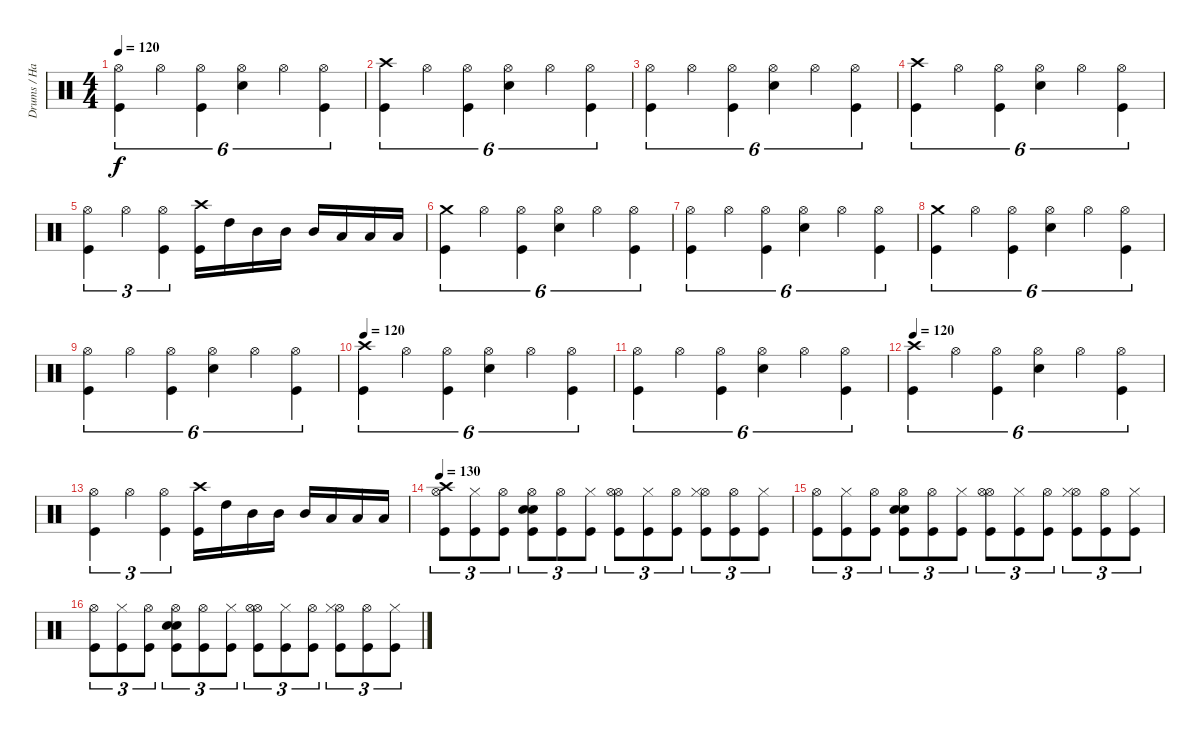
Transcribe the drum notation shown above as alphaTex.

\track ("Drums / Hammer of God" "Drums / Ha") {instrument percussion}
\staff {score}
\articulation defaults
\ts (4 4)
\tempo 120
\clef neutral
\ks c
("Kick (hit)" "Hi-Hat (open)").4{tu (6 4) dy f} "Hi-Hat (open)".4{tu (6 4)} ("Kick (hit)" "Hi-Hat (open)").4{tu (6 4)} ("Snare (hit) 2" "Hi-Hat (open)").4{tu (6 4)} "Hi-Hat (open)".4{tu (6 4)} ("Kick (hit)" "Hi-Hat (open)").4{tu (6 4)} |
("Kick (hit)" "Crash high (hit)").4{tu (6 4)} "Hi-Hat (open)".4{tu (6 4)} ("Kick (hit)" "Hi-Hat (open)").4{tu (6 4)} ("Snare (hit) 2" "Hi-Hat (open)").4{tu (6 4)} "Hi-Hat (open)".4{tu (6 4)} ("Kick (hit)" "Hi-Hat (open)").4{tu (6 4)} |
("Kick (hit)" "Hi-Hat (open)").4{tu (6 4)} "Hi-Hat (open)".4{tu (6 4)} ("Kick (hit)" "Hi-Hat (open)").4{tu (6 4)} ("Snare (hit) 2" "Hi-Hat (open)").4{tu (6 4)} "Hi-Hat (open)".4{tu (6 4)} ("Kick (hit)" "Hi-Hat (open)").4{tu (6 4)} |
("Kick (hit)" "Crash high (hit)").4{tu (6 4)} "Hi-Hat (open)".4{tu (6 4)} ("Kick (hit)" "Hi-Hat (open)").4{tu (6 4)} ("Snare (hit) 2" "Hi-Hat (open)").4{tu (6 4)} "Hi-Hat (open)".4{tu (6 4)} ("Kick (hit)" "Hi-Hat (open)").4{tu (6 4)} |
("Kick (hit)" "Hi-Hat (open)").4{tu (3 2)} "Hi-Hat (open)".4{tu (3 2)} ("Kick (hit)" "Hi-Hat (open)").4{tu (3 2)} ("Kick (hit)" "Crash high (hit)").16 "High Tom (hit)".16 "Mid Tom (hit)".16 "Mid Tom (hit)".16 "Mid Tom (hit)".16 "Low Tom (hit)".16 "Low Tom (hit)".16 "Low Tom (hit)".16 |
("Kick (hit)" "Crash medium (hit)").4{tu (6 4)} "Hi-Hat (open)".4{tu (6 4)} ("Kick (hit)" "Hi-Hat (open)").4{tu (6 4)} ("Snare (hit) 2" "Hi-Hat (open)").4{tu (6 4)} "Hi-Hat (open)".4{tu (6 4)} ("Kick (hit)" "Hi-Hat (open)").4{tu (6 4)} |
("Kick (hit)" "Hi-Hat (open)").4{tu (6 4)} "Hi-Hat (open)".4{tu (6 4)} ("Kick (hit)" "Hi-Hat (open)").4{tu (6 4)} ("Snare (hit) 2" "Hi-Hat (open)").4{tu (6 4)} "Hi-Hat (open)".4{tu (6 4)} ("Kick (hit)" "Hi-Hat (open)").4{tu (6 4)} |
("Kick (hit)" "Crash medium (hit)").4{tu (6 4)} "Hi-Hat (open)".4{tu (6 4)} ("Kick (hit)" "Hi-Hat (open)").4{tu (6 4)} ("Snare (hit) 2" "Hi-Hat (open)").4{tu (6 4)} "Hi-Hat (open)".4{tu (6 4)} ("Kick (hit)" "Hi-Hat (open)").4{tu (6 4)} |
("Kick (hit)" "Hi-Hat (open)").4{tu (6 4)} "Hi-Hat (open)".4{tu (6 4)} ("Kick (hit)" "Hi-Hat (open)").4{tu (6 4)} ("Snare (hit) 2" "Hi-Hat (open)").4{tu (6 4)} "Hi-Hat (open)".4{tu (6 4)} ("Kick (hit)" "Hi-Hat (open)").4{tu (6 4)} |
\tempo 120
("Kick (hit)" "Crash high (hit)").4{tu (6 4)} "Hi-Hat (open)".4{tu (6 4)} ("Kick (hit)" "Hi-Hat (open)").4{tu (6 4)} ("Snare (hit) 2" "Hi-Hat (open)").4{tu (6 4)} "Hi-Hat (open)".4{tu (6 4)} ("Kick (hit)" "Hi-Hat (open)").4{tu (6 4)} |
("Kick (hit)" "Hi-Hat (open)").4{tu (6 4)} "Hi-Hat (open)".4{tu (6 4)} ("Kick (hit)" "Hi-Hat (open)").4{tu (6 4)} ("Snare (hit) 2" "Hi-Hat (open)").4{tu (6 4)} "Hi-Hat (open)".4{tu (6 4)} ("Kick (hit)" "Hi-Hat (open)").4{tu (6 4)} |
\tempo 120
("Kick (hit)" "Crash high (hit)").4{tu (6 4)} "Hi-Hat (open)".4{tu (6 4)} ("Kick (hit)" "Hi-Hat (open)").4{tu (6 4)} ("Snare (hit) 2" "Hi-Hat (open)").4{tu (6 4)} "Hi-Hat (open)".4{tu (6 4)} ("Kick (hit)" "Hi-Hat (open)").4{tu (6 4)} |
("Kick (hit)" "Hi-Hat (open)").4{tu (3 2)} "Hi-Hat (open)".4{tu (3 2)} ("Kick (hit)" "Hi-Hat (open)").4{tu (3 2)} ("Kick (hit)" "Crash high (hit)").16 "High Tom (hit)".16 "Mid Tom (hit)".16 "Mid Tom (hit)".16 "Mid Tom (hit)".16 "Low Tom (hit)".16 "Low Tom (hit)".16 "Low Tom (hit)".16 |
\tempo 130
("Crash high (hit)" "Hi-Hat (open)" "Kick (hit)").8{tu (3 2)} ("Hi-Hat (closed)" "Kick (hit)").8{tu (3 2)} ("Hi-Hat (open)" "Kick (hit)").8{tu (3 2)} ("Snare (hit) 2" "Hi-Hat (open)" "Snare (hit) 2" "Kick (hit)").8{tu (3 2)} ("Hi-Hat (open)" "Kick (hit)").8{tu (3 2)} ("Hi-Hat (closed)" "Kick (hit)").8{tu (3 2)} ("Hi-Hat (open)" "Hi-Hat (open)" "Kick (hit)").8{tu (3 2)} ("Hi-Hat (closed)" "Kick (hit)").8{tu (3 2)} ("Hi-Hat (open)" "Kick (hit)").8{tu (3 2)} ("Hi-Hat (open)" "Hi-Hat (closed)" "Kick (hit)").8{tu (3 2)} ("Hi-Hat (open)" "Kick (hit)").8{tu (3 2)} ("Hi-Hat (closed)" "Kick (hit)").8{tu (3 2)} |
("Hi-Hat (open)" "Kick (hit)").8{tu (3 2)} ("Hi-Hat (closed)" "Kick (hit)").8{tu (3 2)} ("Hi-Hat (open)" "Kick (hit)").8{tu (3 2)} ("Snare (hit) 2" "Hi-Hat (open)" "Snare (hit) 2" "Kick (hit)").8{tu (3 2)} ("Hi-Hat (open)" "Kick (hit)").8{tu (3 2)} ("Hi-Hat (closed)" "Kick (hit)").8{tu (3 2)} ("Hi-Hat (open)" "Hi-Hat (open)" "Kick (hit)").8{tu (3 2)} ("Hi-Hat (closed)" "Kick (hit)").8{tu (3 2)} ("Hi-Hat (open)" "Kick (hit)").8{tu (3 2)} ("Hi-Hat (open)" "Hi-Hat (closed)" "Kick (hit)").8{tu (3 2)} ("Hi-Hat (open)" "Kick (hit)").8{tu (3 2)} ("Hi-Hat (closed)" "Kick (hit)").8{tu (3 2)} |
("Hi-Hat (open)" "Kick (hit)").8{tu (3 2)} ("Hi-Hat (closed)" "Kick (hit)").8{tu (3 2)} ("Hi-Hat (open)" "Kick (hit)").8{tu (3 2)} ("Snare (hit) 2" "Hi-Hat (open)" "Snare (hit) 2" "Kick (hit)").8{tu (3 2)} ("Hi-Hat (open)" "Kick (hit)").8{tu (3 2)} ("Hi-Hat (closed)" "Kick (hit)").8{tu (3 2)} ("Hi-Hat (open)" "Hi-Hat (open)" "Kick (hit)").8{tu (3 2)} ("Hi-Hat (closed)" "Kick (hit)").8{tu (3 2)} ("Hi-Hat (open)" "Kick (hit)").8{tu (3 2)} ("Hi-Hat (open)" "Hi-Hat (closed)" "Kick (hit)").8{tu (3 2)} ("Hi-Hat (open)" "Kick (hit)").8{tu (3 2)} ("Hi-Hat (closed)" "Kick (hit)").8{tu (3 2)}
